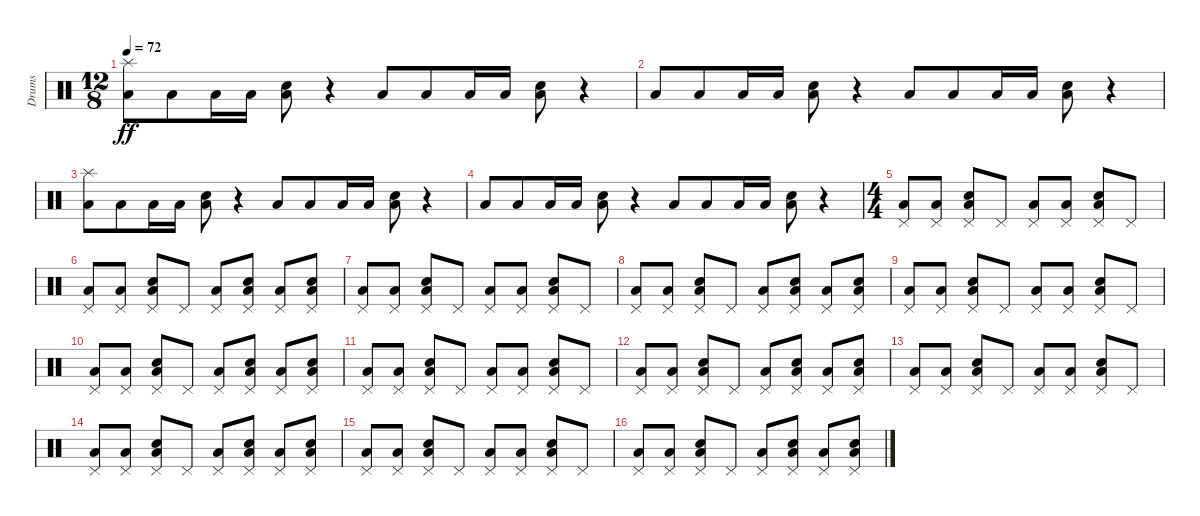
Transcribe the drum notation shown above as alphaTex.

\track ("Drums" "Drums") {instrument percussion}
\staff {score}
\articulation defaults
\ts (12 8)
\tempo 72
\clef neutral
\ks c
("Low Floor Tom (hit)" "Splash (hit)").8{dy ff} "Low Floor Tom (hit)".8 "Low Floor Tom (hit)".16 "Low Floor Tom (hit)".16 ("Electric Snare (hit)" "Low Floor Tom (hit)").8 r.4 "Low Floor Tom (hit)".8 "Low Floor Tom (hit)".8 "Low Floor Tom (hit)".16 "Low Floor Tom (hit)".16 ("Electric Snare (hit)" "Low Floor Tom (hit)").8 r.4 |
"Low Floor Tom (hit)".8 "Low Floor Tom (hit)".8 "Low Floor Tom (hit)".16 "Low Floor Tom (hit)".16 ("Electric Snare (hit)" "Low Floor Tom (hit)").8 r.4 "Low Floor Tom (hit)".8 "Low Floor Tom (hit)".8 "Low Floor Tom (hit)".16 "Low Floor Tom (hit)".16 ("Electric Snare (hit)" "Low Floor Tom (hit)").8 r.4 |
("Low Floor Tom (hit)" "Splash (hit)").8 "Low Floor Tom (hit)".8 "Low Floor Tom (hit)".16 "Low Floor Tom (hit)".16 ("Electric Snare (hit)" "Low Floor Tom (hit)").8 r.4 "Low Floor Tom (hit)".8 "Low Floor Tom (hit)".8 "Low Floor Tom (hit)".16 "Low Floor Tom (hit)".16 ("Electric Snare (hit)" "Low Floor Tom (hit)").8 r.4 |
"Low Floor Tom (hit)".8 "Low Floor Tom (hit)".8 "Low Floor Tom (hit)".16 "Low Floor Tom (hit)".16 ("Electric Snare (hit)" "Low Floor Tom (hit)").8 r.4 "Low Floor Tom (hit)".8 "Low Floor Tom (hit)".8 "Low Floor Tom (hit)".16 "Low Floor Tom (hit)".16 ("Electric Snare (hit)" "Low Floor Tom (hit)").8 r.4 |
\ts (4 4)
("Low Floor Tom (hit)" "Pedal Hi-Hat (hit)").8 ("Low Floor Tom (hit)" "Pedal Hi-Hat (hit)").8 ("Electric Snare (hit)" "Low Floor Tom (hit)" "Pedal Hi-Hat (hit)").8 "Pedal Hi-Hat (hit)".8 ("Low Floor Tom (hit)" "Pedal Hi-Hat (hit)").8 ("Low Floor Tom (hit)" "Pedal Hi-Hat (hit)").8 ("Electric Snare (hit)" "Low Floor Tom (hit)" "Pedal Hi-Hat (hit)").8 "Pedal Hi-Hat (hit)".8 |
("Low Floor Tom (hit)" "Pedal Hi-Hat (hit)").8 ("Low Floor Tom (hit)" "Pedal Hi-Hat (hit)").8 ("Electric Snare (hit)" "Low Floor Tom (hit)" "Pedal Hi-Hat (hit)").8 "Pedal Hi-Hat (hit)".8 ("Low Floor Tom (hit)" "Pedal Hi-Hat (hit)").8 ("Electric Snare (hit)" "Low Floor Tom (hit)" "Pedal Hi-Hat (hit)").8 ("Low Floor Tom (hit)" "Pedal Hi-Hat (hit)").8 ("Electric Snare (hit)" "Low Floor Tom (hit)" "Pedal Hi-Hat (hit)").8 |
("Low Floor Tom (hit)" "Pedal Hi-Hat (hit)").8 ("Low Floor Tom (hit)" "Pedal Hi-Hat (hit)").8 ("Electric Snare (hit)" "Low Floor Tom (hit)" "Pedal Hi-Hat (hit)").8 "Pedal Hi-Hat (hit)".8 ("Low Floor Tom (hit)" "Pedal Hi-Hat (hit)").8 ("Low Floor Tom (hit)" "Pedal Hi-Hat (hit)").8 ("Electric Snare (hit)" "Low Floor Tom (hit)" "Pedal Hi-Hat (hit)").8 "Pedal Hi-Hat (hit)".8 |
("Low Floor Tom (hit)" "Pedal Hi-Hat (hit)").8 ("Low Floor Tom (hit)" "Pedal Hi-Hat (hit)").8 ("Electric Snare (hit)" "Low Floor Tom (hit)" "Pedal Hi-Hat (hit)").8 "Pedal Hi-Hat (hit)".8 ("Low Floor Tom (hit)" "Pedal Hi-Hat (hit)").8 ("Electric Snare (hit)" "Low Floor Tom (hit)" "Pedal Hi-Hat (hit)").8 ("Low Floor Tom (hit)" "Pedal Hi-Hat (hit)").8 ("Electric Snare (hit)" "Low Floor Tom (hit)" "Pedal Hi-Hat (hit)").8 |
("Low Floor Tom (hit)" "Pedal Hi-Hat (hit)").8 ("Low Floor Tom (hit)" "Pedal Hi-Hat (hit)").8 ("Electric Snare (hit)" "Low Floor Tom (hit)" "Pedal Hi-Hat (hit)").8 "Pedal Hi-Hat (hit)".8 ("Low Floor Tom (hit)" "Pedal Hi-Hat (hit)").8 ("Low Floor Tom (hit)" "Pedal Hi-Hat (hit)").8 ("Electric Snare (hit)" "Low Floor Tom (hit)" "Pedal Hi-Hat (hit)").8 "Pedal Hi-Hat (hit)".8 |
("Low Floor Tom (hit)" "Pedal Hi-Hat (hit)").8 ("Low Floor Tom (hit)" "Pedal Hi-Hat (hit)").8 ("Electric Snare (hit)" "Low Floor Tom (hit)" "Pedal Hi-Hat (hit)").8 "Pedal Hi-Hat (hit)".8 ("Low Floor Tom (hit)" "Pedal Hi-Hat (hit)").8 ("Electric Snare (hit)" "Low Floor Tom (hit)" "Pedal Hi-Hat (hit)").8 ("Low Floor Tom (hit)" "Pedal Hi-Hat (hit)").8 ("Electric Snare (hit)" "Low Floor Tom (hit)" "Pedal Hi-Hat (hit)").8 |
("Low Floor Tom (hit)" "Pedal Hi-Hat (hit)").8 ("Low Floor Tom (hit)" "Pedal Hi-Hat (hit)").8 ("Electric Snare (hit)" "Low Floor Tom (hit)" "Pedal Hi-Hat (hit)").8 "Pedal Hi-Hat (hit)".8 ("Low Floor Tom (hit)" "Pedal Hi-Hat (hit)").8 ("Low Floor Tom (hit)" "Pedal Hi-Hat (hit)").8 ("Electric Snare (hit)" "Low Floor Tom (hit)" "Pedal Hi-Hat (hit)").8 "Pedal Hi-Hat (hit)".8 |
("Low Floor Tom (hit)" "Pedal Hi-Hat (hit)").8 ("Low Floor Tom (hit)" "Pedal Hi-Hat (hit)").8 ("Electric Snare (hit)" "Low Floor Tom (hit)" "Pedal Hi-Hat (hit)").8 "Pedal Hi-Hat (hit)".8 ("Low Floor Tom (hit)" "Pedal Hi-Hat (hit)").8 ("Electric Snare (hit)" "Low Floor Tom (hit)" "Pedal Hi-Hat (hit)").8 ("Low Floor Tom (hit)" "Pedal Hi-Hat (hit)").8 ("Electric Snare (hit)" "Low Floor Tom (hit)" "Pedal Hi-Hat (hit)").8 |
("Low Floor Tom (hit)" "Pedal Hi-Hat (hit)").8 ("Low Floor Tom (hit)" "Pedal Hi-Hat (hit)").8 ("Electric Snare (hit)" "Low Floor Tom (hit)" "Pedal Hi-Hat (hit)").8 "Pedal Hi-Hat (hit)".8 ("Low Floor Tom (hit)" "Pedal Hi-Hat (hit)").8 ("Low Floor Tom (hit)" "Pedal Hi-Hat (hit)").8 ("Electric Snare (hit)" "Low Floor Tom (hit)" "Pedal Hi-Hat (hit)").8 "Pedal Hi-Hat (hit)".8 |
("Low Floor Tom (hit)" "Pedal Hi-Hat (hit)").8 ("Low Floor Tom (hit)" "Pedal Hi-Hat (hit)").8 ("Electric Snare (hit)" "Low Floor Tom (hit)" "Pedal Hi-Hat (hit)").8 "Pedal Hi-Hat (hit)".8 ("Low Floor Tom (hit)" "Pedal Hi-Hat (hit)").8 ("Electric Snare (hit)" "Low Floor Tom (hit)" "Pedal Hi-Hat (hit)").8 ("Low Floor Tom (hit)" "Pedal Hi-Hat (hit)").8 ("Electric Snare (hit)" "Low Floor Tom (hit)" "Pedal Hi-Hat (hit)").8 |
("Low Floor Tom (hit)" "Pedal Hi-Hat (hit)").8 ("Low Floor Tom (hit)" "Pedal Hi-Hat (hit)").8 ("Electric Snare (hit)" "Low Floor Tom (hit)" "Pedal Hi-Hat (hit)").8 "Pedal Hi-Hat (hit)".8 ("Low Floor Tom (hit)" "Pedal Hi-Hat (hit)").8 ("Low Floor Tom (hit)" "Pedal Hi-Hat (hit)").8 ("Electric Snare (hit)" "Low Floor Tom (hit)" "Pedal Hi-Hat (hit)").8 "Pedal Hi-Hat (hit)".8 |
("Low Floor Tom (hit)" "Pedal Hi-Hat (hit)").8 ("Low Floor Tom (hit)" "Pedal Hi-Hat (hit)").8 ("Electric Snare (hit)" "Low Floor Tom (hit)" "Pedal Hi-Hat (hit)").8 "Pedal Hi-Hat (hit)".8 ("Low Floor Tom (hit)" "Pedal Hi-Hat (hit)").8 ("Electric Snare (hit)" "Low Floor Tom (hit)" "Pedal Hi-Hat (hit)").8 ("Low Floor Tom (hit)" "Pedal Hi-Hat (hit)").8 ("Electric Snare (hit)" "Low Floor Tom (hit)" "Pedal Hi-Hat (hit)").8
